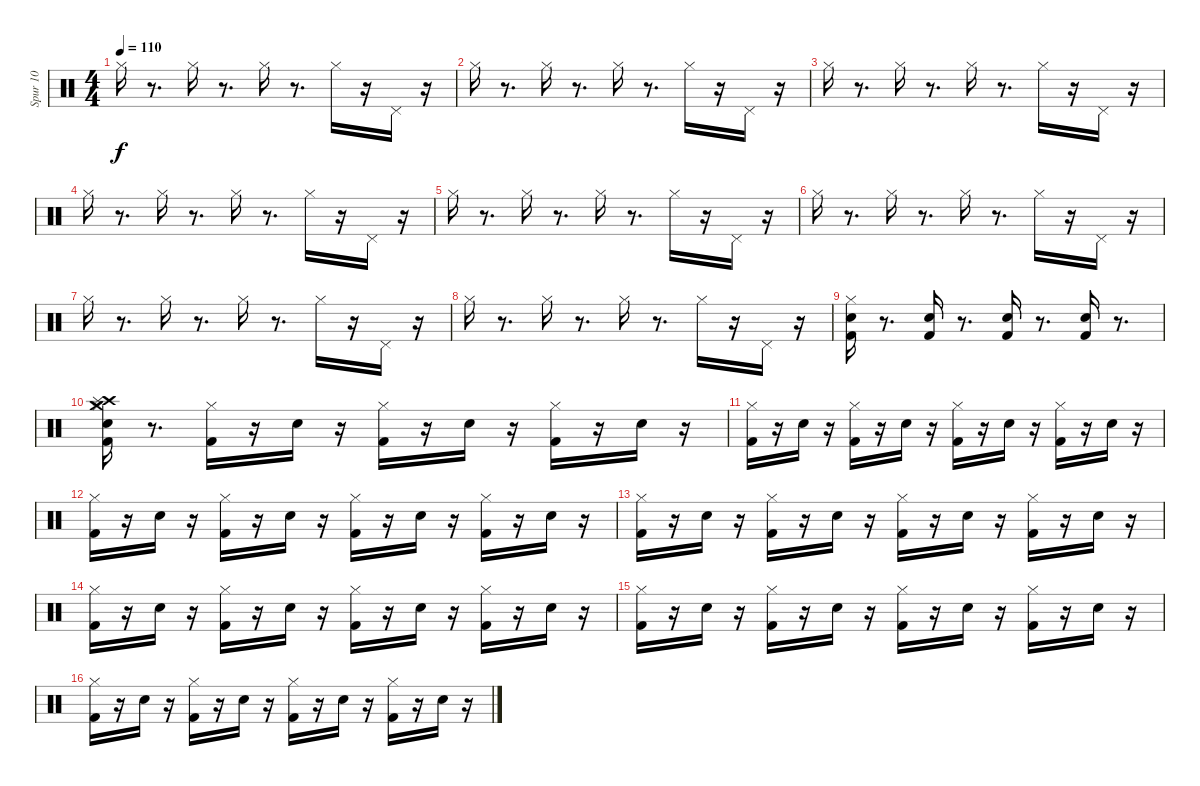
\track ("Spur 10" "Spur 10") {instrument percussion}
\staff {score}
\articulation defaults
\ts (4 4)
\tempo 110
\clef neutral
\ks c "Hi-Hat (closed)".16{dy f}
r.8{d} "Hi-Hat (closed)".16 r.8{d} "Hi-Hat (closed)".16 r.8{d} "Hi-Hat (closed)".16 r.16 "Pedal Hi-Hat (hit)".16 r.16 |
"Hi-Hat (closed)".16 r.8{d} "Hi-Hat (closed)".16 r.8{d} "Hi-Hat (closed)".16 r.8{d} "Hi-Hat (closed)".16 r.16 "Pedal Hi-Hat (hit)".16 r.16 |
"Hi-Hat (closed)".16 r.8{d} "Hi-Hat (closed)".16 r.8{d} "Hi-Hat (closed)".16 r.8{d} "Hi-Hat (closed)".16 r.16 "Pedal Hi-Hat (hit)".16 r.16 |
"Hi-Hat (closed)".16 r.8{d} "Hi-Hat (closed)".16 r.8{d} "Hi-Hat (closed)".16 r.8{d} "Hi-Hat (closed)".16 r.16 "Pedal Hi-Hat (hit)".16 r.16 |
"Hi-Hat (closed)".16 r.8{d} "Hi-Hat (closed)".16 r.8{d} "Hi-Hat (closed)".16 r.8{d} "Hi-Hat (closed)".16 r.16 "Pedal Hi-Hat (hit)".16 r.16 |
"Hi-Hat (closed)".16 r.8{d} "Hi-Hat (closed)".16 r.8{d} "Hi-Hat (closed)".16 r.8{d} "Hi-Hat (closed)".16 r.16 "Pedal Hi-Hat (hit)".16 r.16 |
"Hi-Hat (closed)".16 r.8{d} "Hi-Hat (closed)".16 r.8{d} "Hi-Hat (closed)".16 r.8{d} "Hi-Hat (closed)".16 r.16 "Pedal Hi-Hat (hit)".16 r.16 |
"Hi-Hat (closed)".16 r.8{d} "Hi-Hat (closed)".16 r.8{d} "Hi-Hat (closed)".16 r.8{d} "Hi-Hat (closed)".16 r.16 "Pedal Hi-Hat (hit)".16 r.16 |
("Hi-Hat (closed)" "Kick (hit) 2" "Snare (hit) 2").16 r.8{d} ("Kick (hit) 2" "Snare (hit) 2").16 r.8{d} ("Kick (hit) 2" "Snare (hit) 2").16 r.8{d} ("Kick (hit) 2" "Snare (hit) 2").16 r.8{d} |
("Kick (hit) 2" "Snare (hit) 2" "Crash high (hit)" "Splash (hit)" "Crash medium (hit)" "Hi-Hat (closed)").16 r.8{d} ("Kick (hit) 2" "Hi-Hat (closed)").16 r.16 "Snare (hit) 2".16 r.16 ("Kick (hit) 2" "Hi-Hat (closed)").16 r.16 "Snare (hit) 2".16 r.16 ("Kick (hit) 2" "Hi-Hat (closed)").16 r.16 "Snare (hit) 2".16 r.16 |
("Kick (hit) 2" "Hi-Hat (closed)").16 r.16 "Snare (hit) 2".16 r.16 ("Kick (hit) 2" "Hi-Hat (closed)").16 r.16 "Snare (hit) 2".16 r.16 ("Kick (hit) 2" "Hi-Hat (closed)").16 r.16 "Snare (hit) 2".16 r.16 ("Kick (hit) 2" "Hi-Hat (closed)").16 r.16 "Snare (hit) 2".16 r.16 |
("Kick (hit) 2" "Hi-Hat (closed)").16 r.16 "Snare (hit) 2".16 r.16 ("Kick (hit) 2" "Hi-Hat (closed)").16 r.16 "Snare (hit) 2".16 r.16 ("Kick (hit) 2" "Hi-Hat (closed)").16 r.16 "Snare (hit) 2".16 r.16 ("Kick (hit) 2" "Hi-Hat (closed)").16 r.16 "Snare (hit) 2".16 r.16 |
("Kick (hit) 2" "Hi-Hat (closed)").16 r.16 "Snare (hit) 2".16 r.16 ("Kick (hit) 2" "Hi-Hat (closed)").16 r.16 "Snare (hit) 2".16 r.16 ("Kick (hit) 2" "Hi-Hat (closed)").16 r.16 "Snare (hit) 2".16 r.16 ("Kick (hit) 2" "Hi-Hat (closed)").16 r.16 "Snare (hit) 2".16 r.16 |
("Kick (hit) 2" "Hi-Hat (closed)").16 r.16 "Snare (hit) 2".16 r.16 ("Kick (hit) 2" "Hi-Hat (closed)").16 r.16 "Snare (hit) 2".16 r.16 ("Kick (hit) 2" "Hi-Hat (closed)").16 r.16 "Snare (hit) 2".16 r.16 ("Kick (hit) 2" "Hi-Hat (closed)").16 r.16 "Snare (hit) 2".16 r.16 |
("Kick (hit) 2" "Hi-Hat (closed)").16 r.16 "Snare (hit) 2".16 r.16 ("Kick (hit) 2" "Hi-Hat (closed)").16 r.16 "Snare (hit) 2".16 r.16 ("Kick (hit) 2" "Hi-Hat (closed)").16 r.16 "Snare (hit) 2".16 r.16 ("Kick (hit) 2" "Hi-Hat (closed)").16 r.16 "Snare (hit) 2".16 r.16 |
("Kick (hit) 2" "Hi-Hat (closed)").16 r.16 "Snare (hit) 2".16 r.16 ("Kick (hit) 2" "Hi-Hat (closed)").16 r.16 "Snare (hit) 2".16 r.16 ("Kick (hit) 2" "Hi-Hat (closed)").16 r.16 "Snare (hit) 2".16 r.16 ("Kick (hit) 2" "Hi-Hat (closed)").16 r.16 "Snare (hit) 2".16 r.16
